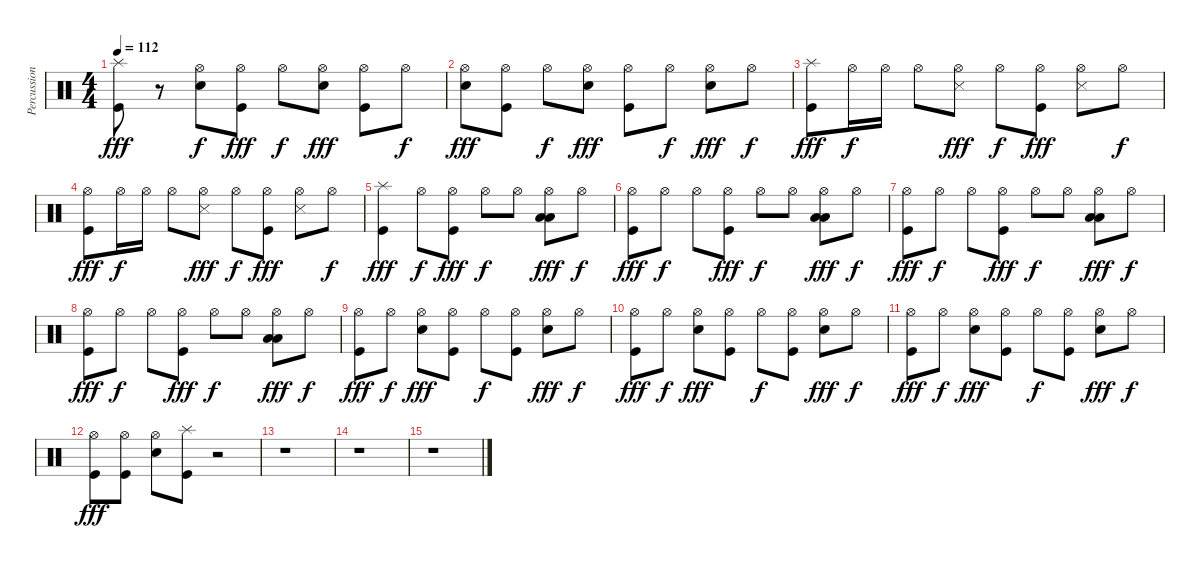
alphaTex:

\track ("Percussion" "Percussion") {instrument percussion}
\staff {score}
\articulation defaults
\ts (4 4)
\tempo 112
\clef neutral
\ks c
("Splash (hit)" "Kick (hit)").8{dy fff} r.8 ("Hi-Hat (open)" "Snare (hit) 2").8{dy f} ("Hi-Hat (open)" "Kick (hit)").8{dy fff} "Hi-Hat (open)".8{dy f} ("Hi-Hat (open)" "Snare (hit) 2").8{dy fff} ("Hi-Hat (open)" "Kick (hit)").8 "Hi-Hat (open)".8{dy f} |
("Hi-Hat (open)" "Snare (hit) 2").8{dy fff} ("Hi-Hat (open)" "Kick (hit)").8 "Hi-Hat (open)".8{dy f} ("Hi-Hat (open)" "Snare (hit) 2").8{dy fff} ("Hi-Hat (open)" "Kick (hit)").8 "Hi-Hat (open)".8{dy f} ("Hi-Hat (open)" "Snare (hit) 2").8{dy fff} "Hi-Hat (open)".8{dy f} |
("Splash (hit)" "Kick (hit)").8{dy fff} "Hi-Hat (open)".16{dy f} "Hi-Hat (open)".16 "Hi-Hat (open)".8 ("Hi-Hat (open)" "Snare (side stick) 3").8{dy fff} "Hi-Hat (open)".8{dy f} ("Hi-Hat (open)" "Kick (hit)").8{dy fff} ("Hi-Hat (open)" "Snare (side stick) 3").8 "Hi-Hat (open)".8{dy f} |
("Hi-Hat (open)" "Kick (hit)").8{dy fff} "Hi-Hat (open)".16{dy f} "Hi-Hat (open)".16 "Hi-Hat (open)".8 ("Hi-Hat (open)" "Snare (side stick) 3").8{dy fff} "Hi-Hat (open)".8{dy f} ("Hi-Hat (open)" "Kick (hit)").8{dy fff} ("Hi-Hat (open)" "Snare (side stick) 3").8 "Hi-Hat (open)".8{dy f} |
("Splash (hit)" "Kick (hit)").4{dy fff} "Hi-Hat (open)".8{dy f} ("Hi-Hat (open)" "Kick (hit)").8{dy fff} "Hi-Hat (open)".8{dy f} "Hi-Hat (open)".8 ("Hi-Hat (open)" "Low Tom (hit)" "Low Tom (hit)").8{dy fff} "Hi-Hat (open)".8{dy f} |
("Hi-Hat (open)" "Kick (hit)").8{dy fff} "Hi-Hat (open)".8{dy f} "Hi-Hat (open)".8 ("Hi-Hat (open)" "Kick (hit)").8{dy fff} "Hi-Hat (open)".8{dy f} "Hi-Hat (open)".8 ("Hi-Hat (open)" "Low Tom (hit)" "Low Tom (hit)").8{dy fff} "Hi-Hat (open)".8{dy f} |
("Hi-Hat (open)" "Kick (hit)").8{dy fff} "Hi-Hat (open)".8{dy f} "Hi-Hat (open)".8 ("Hi-Hat (open)" "Kick (hit)").8{dy fff} "Hi-Hat (open)".8{dy f} "Hi-Hat (open)".8 ("Hi-Hat (open)" "Low Tom (hit)" "Low Tom (hit)").8{dy fff} "Hi-Hat (open)".8{dy f} |
("Hi-Hat (open)" "Kick (hit)").8{dy fff} "Hi-Hat (open)".8{dy f} "Hi-Hat (open)".8 ("Hi-Hat (open)" "Kick (hit)").8{dy fff} "Hi-Hat (open)".8{dy f} "Hi-Hat (open)".8 ("Hi-Hat (open)" "Low Tom (hit)" "Low Tom (hit)").8{dy fff} "Hi-Hat (open)".8{dy f} |
("Hi-Hat (open)" "Kick (hit)").8{dy fff} "Hi-Hat (open)".8{dy f} ("Hi-Hat (open)" "Snare (hit) 2").8{dy fff} ("Hi-Hat (open)" "Kick (hit)").8 "Hi-Hat (open)".8{dy f} ("Hi-Hat (open)" "Kick (hit)").8 ("Hi-Hat (open)" "Snare (hit) 2").8{dy fff} "Hi-Hat (open)".8{dy f} |
("Hi-Hat (open)" "Kick (hit)").8{dy fff} "Hi-Hat (open)".8{dy f} ("Hi-Hat (open)" "Snare (hit) 2").8{dy fff} ("Hi-Hat (open)" "Kick (hit)").8 "Hi-Hat (open)".8{dy f} ("Hi-Hat (open)" "Kick (hit)").8 ("Hi-Hat (open)" "Snare (hit) 2").8{dy fff} "Hi-Hat (open)".8{dy f} |
("Hi-Hat (open)" "Kick (hit)").8{dy fff} "Hi-Hat (open)".8{dy f} ("Hi-Hat (open)" "Snare (hit) 2").8{dy fff} ("Hi-Hat (open)" "Kick (hit)").8 "Hi-Hat (open)".8{dy f} ("Hi-Hat (open)" "Kick (hit)").8 ("Hi-Hat (open)" "Snare (hit) 2").8{dy fff} "Hi-Hat (open)".8{dy f} |
("Hi-Hat (open)" "Kick (hit)").8{dy fff} ("Hi-Hat (open)" "Kick (hit)").8 ("Hi-Hat (open)" "Snare (hit) 2").8 ("Splash (hit)" "Kick (hit)").8 r.2 |
r.1 |
r.1 |
r.1
